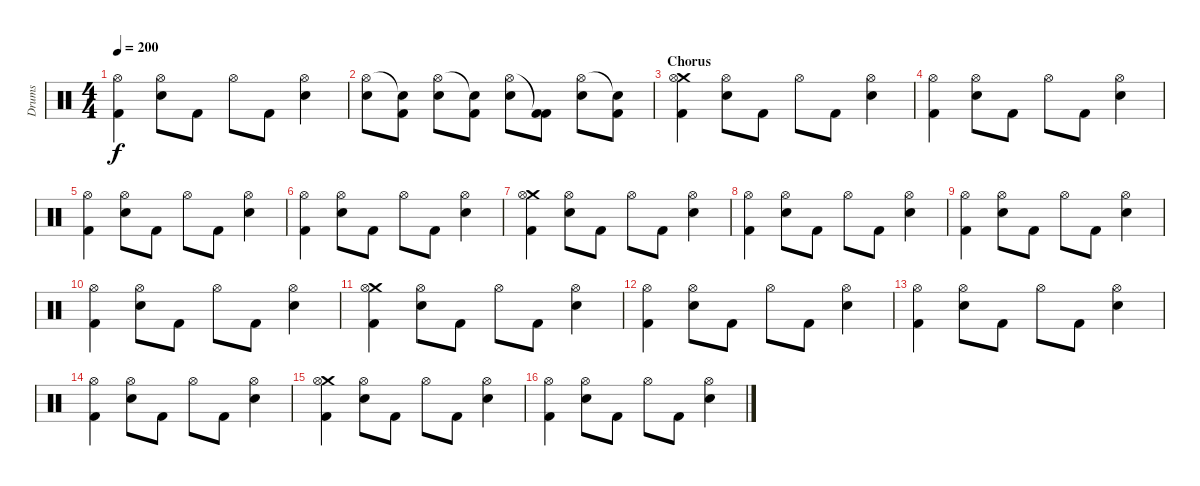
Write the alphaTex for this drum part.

\track ("Drums" "Drums") {instrument percussion}
\staff {score}
\articulation defaults
\ts (4 4)
\tempo 200
\clef neutral
\ks c
("Hi-Hat (open)" "Kick (hit) 2").4{dy f} ("Hi-Hat (open)" "Snare (hit) 2").8 "Kick (hit) 2".8 "Hi-Hat (open)".8 "Kick (hit) 2".8 ("Hi-Hat (open)" "Snare (hit) 2").4 |
("Hi-Hat (open)" "Snare (hit) 2").8 ("Snare (hit)"{t} "Kick (hit) 2").8 ("Hi-Hat (open)" "Snare (hit) 2").8 ("Snare (hit)"{t} "Kick (hit) 2").8 ("Hi-Hat (open)" "Snare (hit) 2").8 ("Kick (hit) 2"{t} "Kick (hit) 2").8 ("Hi-Hat (open)" "Snare (hit) 2").8 ("Snare (hit)"{t} "Kick (hit) 2").8 |
\section ("" "Chorus")
("Crash medium (hit)" "Hi-Hat (open)" "Kick (hit) 2").4 ("Hi-Hat (open)" "Snare (hit) 2").8 "Kick (hit) 2".8 "Hi-Hat (open)".8 "Kick (hit) 2".8 ("Hi-Hat (open)" "Snare (hit) 2").4 |
("Hi-Hat (open)" "Kick (hit) 2").4 ("Hi-Hat (open)" "Snare (hit) 2").8 "Kick (hit) 2".8 "Hi-Hat (open)".8 "Kick (hit) 2".8 ("Hi-Hat (open)" "Snare (hit) 2").4 |
("Hi-Hat (open)" "Kick (hit) 2").4 ("Hi-Hat (open)" "Snare (hit) 2").8 "Kick (hit) 2".8 "Hi-Hat (open)".8 "Kick (hit) 2".8 ("Hi-Hat (open)" "Snare (hit) 2").4 |
("Hi-Hat (open)" "Kick (hit) 2").4 ("Hi-Hat (open)" "Snare (hit) 2").8 "Kick (hit) 2".8 "Hi-Hat (open)".8 "Kick (hit) 2".8 ("Hi-Hat (open)" "Snare (hit) 2").4 |
("Crash medium (hit)" "Hi-Hat (open)" "Kick (hit) 2").4 ("Hi-Hat (open)" "Snare (hit) 2").8 "Kick (hit) 2".8 "Hi-Hat (open)".8 "Kick (hit) 2".8 ("Hi-Hat (open)" "Snare (hit) 2").4 |
("Hi-Hat (open)" "Kick (hit) 2").4 ("Hi-Hat (open)" "Snare (hit) 2").8 "Kick (hit) 2".8 "Hi-Hat (open)".8 "Kick (hit) 2".8 ("Hi-Hat (open)" "Snare (hit) 2").4 |
("Hi-Hat (open)" "Kick (hit) 2").4 ("Hi-Hat (open)" "Snare (hit) 2").8 "Kick (hit) 2".8 "Hi-Hat (open)".8 "Kick (hit) 2".8 ("Hi-Hat (open)" "Snare (hit) 2").4 |
("Hi-Hat (open)" "Kick (hit) 2").4 ("Hi-Hat (open)" "Snare (hit) 2").8 "Kick (hit) 2".8 "Hi-Hat (open)".8 "Kick (hit) 2".8 ("Hi-Hat (open)" "Snare (hit) 2").4 |
("Crash medium (hit)" "Hi-Hat (open)" "Kick (hit) 2").4 ("Hi-Hat (open)" "Snare (hit) 2").8 "Kick (hit) 2".8 "Hi-Hat (open)".8 "Kick (hit) 2".8 ("Hi-Hat (open)" "Snare (hit) 2").4 |
("Hi-Hat (open)" "Kick (hit) 2").4 ("Hi-Hat (open)" "Snare (hit) 2").8 "Kick (hit) 2".8 "Hi-Hat (open)".8 "Kick (hit) 2".8 ("Hi-Hat (open)" "Snare (hit) 2").4 |
("Hi-Hat (open)" "Kick (hit) 2").4 ("Hi-Hat (open)" "Snare (hit) 2").8 "Kick (hit) 2".8 "Hi-Hat (open)".8 "Kick (hit) 2".8 ("Hi-Hat (open)" "Snare (hit) 2").4 |
("Hi-Hat (open)" "Kick (hit) 2").4 ("Hi-Hat (open)" "Snare (hit) 2").8 "Kick (hit) 2".8 "Hi-Hat (open)".8 "Kick (hit) 2".8 ("Hi-Hat (open)" "Snare (hit) 2").4 |
("Crash medium (hit)" "Hi-Hat (open)" "Kick (hit) 2").4 ("Hi-Hat (open)" "Snare (hit) 2").8 "Kick (hit) 2".8 "Hi-Hat (open)".8 "Kick (hit) 2".8 ("Hi-Hat (open)" "Snare (hit) 2").4 |
("Hi-Hat (open)" "Kick (hit) 2").4 ("Hi-Hat (open)" "Snare (hit) 2").8 "Kick (hit) 2".8 "Hi-Hat (open)".8 "Kick (hit) 2".8 ("Hi-Hat (open)" "Snare (hit) 2").4
